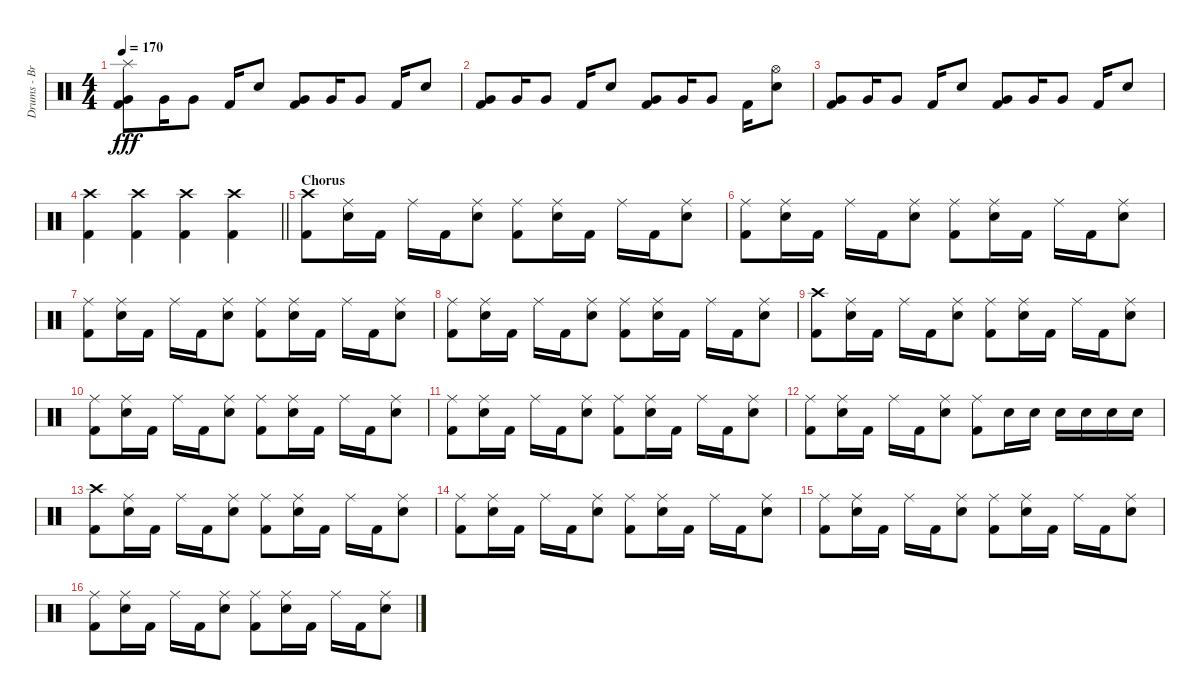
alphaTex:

\track ("Drums - Brandon" "Drums - Br") {instrument percussion}
\staff {score}
\articulation defaults
\ts (4 4)
\tempo 170
\clef neutral
\ks c
("Splash (hit)" "Very Low Tom (hit)" "Kick (hit) 2").8{dy fff} "Very Low Tom (hit)".16 "Very Low Tom (hit)".8 "Kick (hit) 2".16 "Electric Snare (hit)".8 ("Very Low Tom (hit)" "Kick (hit) 2").8 "Very Low Tom (hit)".16 "Very Low Tom (hit)".8 "Kick (hit) 2".16 "Electric Snare (hit)".8 |
("Very Low Tom (hit)" "Kick (hit) 2").8 "Very Low Tom (hit)".16 "Very Low Tom (hit)".8 "Kick (hit) 2".16 "Electric Snare (hit)".8 ("Very Low Tom (hit)" "Kick (hit) 2").8 "Very Low Tom (hit)".16 "Very Low Tom (hit)".8 "Kick (hit) 2".16 ("Hi-Hat (open)" "Electric Snare (hit)").8 |
("Very Low Tom (hit)" "Kick (hit) 2").8 "Very Low Tom (hit)".16 "Very Low Tom (hit)".8 "Kick (hit) 2".16 "Electric Snare (hit)".8 ("Very Low Tom (hit)" "Kick (hit) 2").8 "Very Low Tom (hit)".16 "Very Low Tom (hit)".8 "Kick (hit) 2".16 "Electric Snare (hit)".8 |
\barLineRight lightlight
("Crash high (hit)" "Kick (hit) 2").4 ("Crash high (hit)" "Kick (hit) 2").4 ("Crash high (hit)" "Kick (hit) 2").4 ("Crash high (hit)" "Kick (hit) 2").4 |
\section ("" "Chorus")
("Crash high (hit)" "Kick (hit) 2").8 ("Ride (middle)" "Electric Snare (hit)").16 "Kick (hit) 2".16 "Ride (middle)".16 "Kick (hit) 2".16 ("Ride (middle)" "Electric Snare (hit)").8 ("Ride (middle)" "Kick (hit) 2").8 ("Ride (middle)" "Electric Snare (hit)").16 "Kick (hit) 2".16 "Ride (middle)".16 "Kick (hit) 2".16 ("Ride (middle)" "Electric Snare (hit)").8 |
("Ride (middle)" "Kick (hit) 2").8 ("Ride (middle)" "Electric Snare (hit)").16 "Kick (hit) 2".16 "Ride (middle)".16 "Kick (hit) 2".16 ("Ride (middle)" "Electric Snare (hit)").8 ("Ride (middle)" "Kick (hit) 2").8 ("Ride (middle)" "Electric Snare (hit)").16 "Kick (hit) 2".16 "Ride (middle)".16 "Kick (hit) 2".16 ("Ride (middle)" "Electric Snare (hit)").8 |
("Ride (middle)" "Kick (hit) 2").8 ("Ride (middle)" "Electric Snare (hit)").16 "Kick (hit) 2".16 "Ride (middle)".16 "Kick (hit) 2".16 ("Ride (middle)" "Electric Snare (hit)").8 ("Ride (middle)" "Kick (hit) 2").8 ("Ride (middle)" "Electric Snare (hit)").16 "Kick (hit) 2".16 "Ride (middle)".16 "Kick (hit) 2".16 ("Ride (middle)" "Electric Snare (hit)").8 |
("Ride (middle)" "Kick (hit) 2").8 ("Ride (middle)" "Electric Snare (hit)").16 "Kick (hit) 2".16 "Ride (middle)".16 "Kick (hit) 2".16 ("Ride (middle)" "Electric Snare (hit)").8 ("Ride (middle)" "Kick (hit) 2").8 ("Ride (middle)" "Electric Snare (hit)").16 "Kick (hit) 2".16 "Ride (middle)".16 "Kick (hit) 2".16 ("Ride (middle)" "Electric Snare (hit)").8 |
("Crash high (hit)" "Kick (hit) 2").8 ("Ride (middle)" "Electric Snare (hit)").16 "Kick (hit) 2".16 "Ride (middle)".16 "Kick (hit) 2".16 ("Ride (middle)" "Electric Snare (hit)").8 ("Ride (middle)" "Kick (hit) 2").8 ("Ride (middle)" "Electric Snare (hit)").16 "Kick (hit) 2".16 "Ride (middle)".16 "Kick (hit) 2".16 ("Ride (middle)" "Electric Snare (hit)").8 |
("Ride (middle)" "Kick (hit) 2").8 ("Ride (middle)" "Electric Snare (hit)").16 "Kick (hit) 2".16 "Ride (middle)".16 "Kick (hit) 2".16 ("Ride (middle)" "Electric Snare (hit)").8 ("Ride (middle)" "Kick (hit) 2").8 ("Ride (middle)" "Electric Snare (hit)").16 "Kick (hit) 2".16 "Ride (middle)".16 "Kick (hit) 2".16 ("Ride (middle)" "Electric Snare (hit)").8 |
("Ride (middle)" "Kick (hit) 2").8 ("Ride (middle)" "Electric Snare (hit)").16 "Kick (hit) 2".16 "Ride (middle)".16 "Kick (hit) 2".16 ("Ride (middle)" "Electric Snare (hit)").8 ("Ride (middle)" "Kick (hit) 2").8 ("Ride (middle)" "Electric Snare (hit)").16 "Kick (hit) 2".16 "Ride (middle)".16 "Kick (hit) 2".16 ("Ride (middle)" "Electric Snare (hit)").8 |
("Ride (middle)" "Kick (hit) 2").8 ("Ride (middle)" "Electric Snare (hit)").16 "Kick (hit) 2".16 "Ride (middle)".16 "Kick (hit) 2".16 ("Ride (middle)" "Electric Snare (hit)").8 ("Ride (middle)" "Kick (hit) 2").8 "Electric Snare (hit)".16 "Electric Snare (hit)".16 "Electric Snare (hit)".16 "Electric Snare (hit)".16 "Electric Snare (hit)".16 "Electric Snare (hit)".16 |
("Crash high (hit)" "Kick (hit) 2").8 ("Ride (middle)" "Electric Snare (hit)").16 "Kick (hit) 2".16 "Ride (middle)".16 "Kick (hit) 2".16 ("Ride (middle)" "Electric Snare (hit)").8 ("Ride (middle)" "Kick (hit) 2").8 ("Ride (middle)" "Electric Snare (hit)").16 "Kick (hit) 2".16 "Ride (middle)".16 "Kick (hit) 2".16 ("Ride (middle)" "Electric Snare (hit)").8 |
("Ride (middle)" "Kick (hit) 2").8 ("Ride (middle)" "Electric Snare (hit)").16 "Kick (hit) 2".16 "Ride (middle)".16 "Kick (hit) 2".16 ("Ride (middle)" "Electric Snare (hit)").8 ("Ride (middle)" "Kick (hit) 2").8 ("Ride (middle)" "Electric Snare (hit)").16 "Kick (hit) 2".16 "Ride (middle)".16 "Kick (hit) 2".16 ("Ride (middle)" "Electric Snare (hit)").8 |
("Ride (middle)" "Kick (hit) 2").8 ("Ride (middle)" "Electric Snare (hit)").16 "Kick (hit) 2".16 "Ride (middle)".16 "Kick (hit) 2".16 ("Ride (middle)" "Electric Snare (hit)").8 ("Ride (middle)" "Kick (hit) 2").8 ("Ride (middle)" "Electric Snare (hit)").16 "Kick (hit) 2".16 "Ride (middle)".16 "Kick (hit) 2".16 ("Ride (middle)" "Electric Snare (hit)").8 |
("Ride (middle)" "Kick (hit) 2").8 ("Ride (middle)" "Electric Snare (hit)").16 "Kick (hit) 2".16 "Ride (middle)".16 "Kick (hit) 2".16 ("Ride (middle)" "Electric Snare (hit)").8 ("Ride (middle)" "Kick (hit) 2").8 ("Ride (middle)" "Electric Snare (hit)").16 "Kick (hit) 2".16 "Ride (middle)".16 "Kick (hit) 2".16 ("Ride (middle)" "Electric Snare (hit)").8
